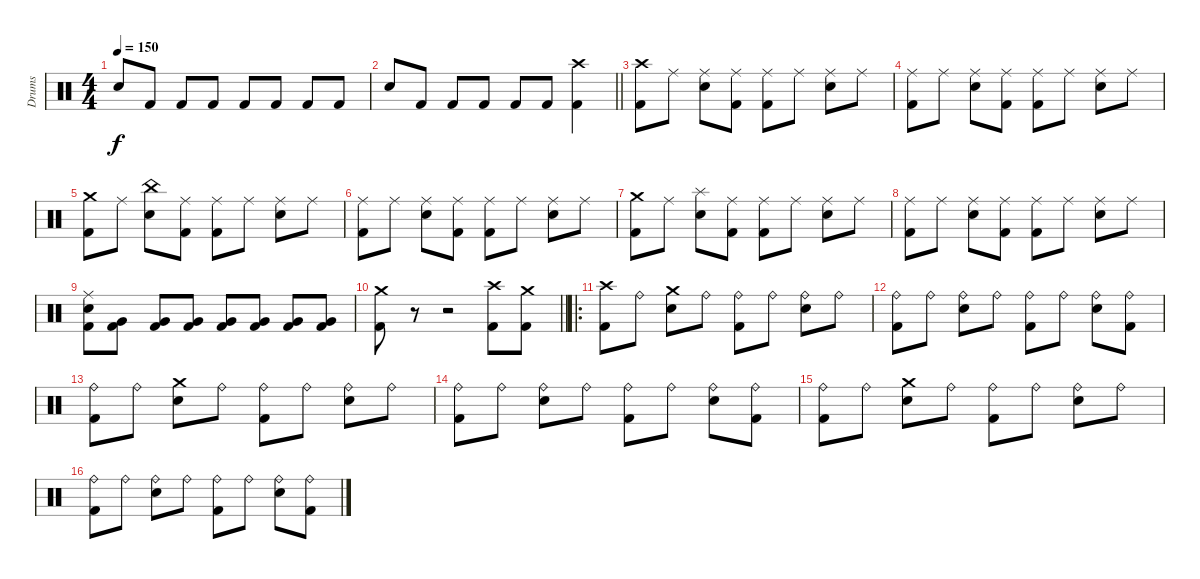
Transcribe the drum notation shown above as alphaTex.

\track ("Drums" "Drums") {instrument percussion}
\staff {score}
\articulation defaults
\ts (4 4)
\tempo 150
\clef neutral
\ks c "Snare (hit) 2".8{dy f} "Kick (hit) 2".8 "Kick (hit) 2".8 "Kick (hit) 2".8 "Kick (hit) 2".8 "Kick (hit) 2".8 "Kick (hit) 2".8 "Kick (hit) 2".8
|
\barLineRight lightlight "Snare (hit) 2".8 "Kick (hit) 2".8 "Kick (hit) 2".8 "Kick (hit) 2".8 "Kick (hit) 2".8 "Kick (hit) 2".8
("Crash high (hit)" "Kick (hit) 2").4 |
("Crash high (hit)" "Kick (hit) 2").8 "Ride (middle)".8 ("Ride (middle)" "Snare (hit) 2").8 ("Ride (middle)" "Kick (hit) 2").8 ("Ride (middle)" "Kick (hit) 2").8 "Ride (middle)".8 ("Ride (middle)" "Snare (hit) 2").8 "Ride (middle)".8 |
("Ride (middle)" "Kick (hit) 2").8 "Ride (middle)".8 ("Ride (middle)" "Snare (hit) 2").8 ("Ride (middle)" "Kick (hit) 2").8 ("Ride (middle)" "Kick (hit) 2").8 "Ride (middle)".8 ("Ride (middle)" "Snare (hit) 2").8 "Ride (middle)".8 |
("Crash medium (hit)" "Kick (hit) 2").8 "Ride (middle)".8 ("China (hit)" "Snare (hit) 2").8 ("Ride (middle)" "Kick (hit) 2").8 ("Ride (middle)" "Kick (hit) 2").8 "Ride (middle)".8 ("Ride (middle)" "Snare (hit) 2").8 "Ride (middle)".8 |
("Ride (middle)" "Kick (hit) 2").8 "Ride (middle)".8 ("Ride (middle)" "Snare (hit) 2").8 ("Ride (middle)" "Kick (hit) 2").8 ("Ride (middle)" "Kick (hit) 2").8 "Ride (middle)".8 ("Ride (middle)" "Snare (hit) 2").8 "Ride (middle)".8 |
("Crash medium (hit)" "Kick (hit) 2").8 "Ride (middle)".8 ("Splash (hit)" "Snare (hit) 2").8 ("Ride (middle)" "Kick (hit) 2").8 ("Ride (middle)" "Kick (hit) 2").8 "Ride (middle)".8 ("Ride (middle)" "Snare (hit) 2").8 "Ride (middle)".8 |
("Ride (middle)" "Kick (hit) 2").8 "Ride (middle)".8 ("Ride (middle)" "Snare (hit) 2").8 ("Ride (middle)" "Kick (hit) 2").8 ("Ride (middle)" "Kick (hit) 2").8 "Ride (middle)".8 ("Ride (middle)" "Snare (hit) 2").8 "Ride (middle)".8 |
("Ride (middle)" "Snare (hit) 2" "Kick (hit) 2").8 ("Very Low Tom (hit)" "Kick (hit) 2").8 ("Very Low Tom (hit)" "Kick (hit) 2").8 ("Very Low Tom (hit)" "Kick (hit) 2").8 ("Very Low Tom (hit)" "Kick (hit) 2").8 ("Very Low Tom (hit)" "Kick (hit) 2").8 ("Very Low Tom (hit)" "Kick (hit) 2").8 ("Very Low Tom (hit)" "Kick (hit) 2").8 |
\barLineRight lightlight
("Crash medium (hit)" "Kick (hit) 2").8 r.8 r.2 ("Crash high (hit)" "Kick (hit) 2").8 ("Crash medium (hit)" "Kick (hit) 2").8 |
\ro
("Crash high (hit)" "Kick (hit) 2").8 "Ride (bell)".8 ("Crash medium (hit)" "Snare (hit) 2").8 "Ride (bell)".8 ("Ride (bell)" "Kick (hit) 2").8 "Ride (bell)".8 ("Ride (bell)" "Snare (hit) 2").8 "Ride (bell)".8 |
("Ride (bell)" "Kick (hit) 2").8 "Ride (bell)".8 ("Ride (bell)" "Snare (hit) 2").8 "Ride (bell)".8 ("Ride (bell)" "Kick (hit) 2").8 "Ride (bell)".8 ("Ride (bell)" "Snare (hit) 2").8 ("Ride (bell)" "Kick (hit) 2").8 |
("Ride (bell)" "Kick (hit) 2").8 "Ride (bell)".8 ("Crash medium (hit)" "Snare (hit) 2").8 "Ride (bell)".8 ("Ride (bell)" "Kick (hit) 2").8 "Ride (bell)".8 ("Ride (bell)" "Snare (hit) 2").8 "Ride (bell)".8 |
("Ride (bell)" "Kick (hit) 2").8 "Ride (bell)".8 ("Ride (bell)" "Snare (hit) 2").8 "Ride (bell)".8 ("Ride (bell)" "Kick (hit) 2").8 "Ride (bell)".8 ("Ride (bell)" "Snare (hit) 2").8 ("Ride (bell)" "Kick (hit) 2").8 |
("Ride (bell)" "Kick (hit) 2").8 "Ride (bell)".8 ("Crash medium (hit)" "Snare (hit) 2").8 "Ride (bell)".8 ("Ride (bell)" "Kick (hit) 2").8 "Ride (bell)".8 ("Ride (bell)" "Snare (hit) 2").8 "Ride (bell)".8 |
("Ride (bell)" "Kick (hit) 2").8 "Ride (bell)".8 ("Ride (bell)" "Snare (hit) 2").8 "Ride (bell)".8 ("Ride (bell)" "Kick (hit) 2").8 "Ride (bell)".8 ("Ride (bell)" "Snare (hit) 2").8 ("Ride (bell)" "Kick (hit) 2").8
